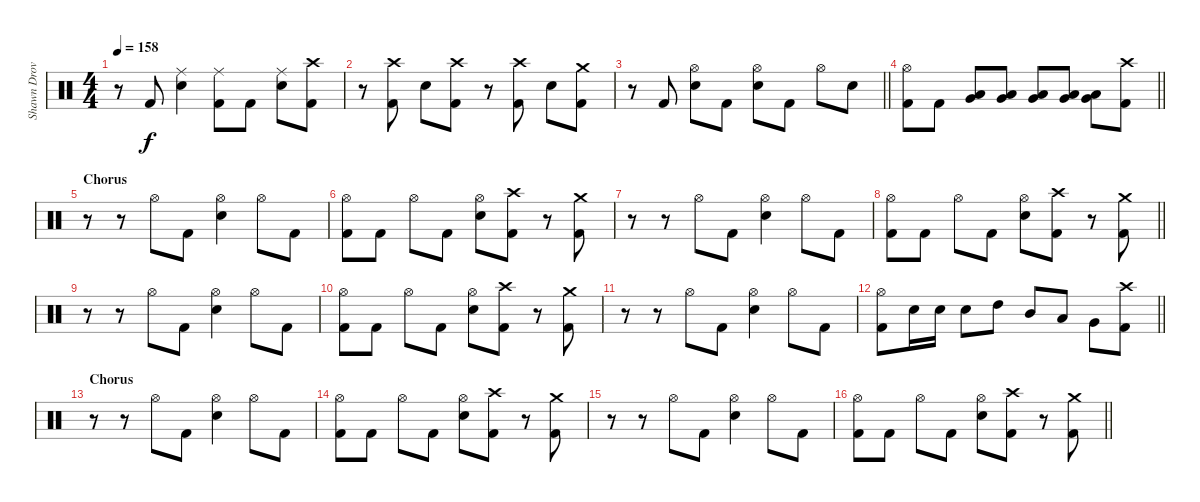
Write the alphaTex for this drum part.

\track ("Shawn Drover" "Shawn Drov") {instrument percussion}
\staff
\articulation defaults
\ts (4 4)
\tempo 158
\clef neutral
\ks c
r.8{dy f} "Kick (hit) 2".8 ("Ride (middle)" "Snare (hit) 2").4 ("Ride (middle)" "Kick (hit) 2").8 "Kick (hit) 2".8 ("Ride (middle)" "Snare (hit) 2").8 ("Crash high (hit)" "Kick (hit) 2").8 |
r.8 ("Crash high (hit)" "Kick (hit) 2").8 "Snare (hit) 2".8 ("Crash high (hit)" "Kick (hit) 2").8 r.8 ("Crash high (hit)" "Kick (hit) 2").8 "Snare (hit) 2".8 ("Crash medium (hit)" "Kick (hit) 2").8 |
\barLineRight lightlight
r.8 "Kick (hit) 2".8 ("Hi-Hat (open)" "Snare (hit) 2").8 "Kick (hit) 2".8 ("Hi-Hat (open)" "Snare (hit) 2").8 "Kick (hit) 2".8 "Hi-Hat (open)".8 "Snare (hit) 2".8 |
\barLineRight lightlight
("Hi-Hat (open)" "Kick (hit) 2").8 "Kick (hit) 2".8 ("Very Low Tom (hit)" "Low Floor Tom (hit)").8 ("Very Low Tom (hit)" "Low Floor Tom (hit)").8 ("Very Low Tom (hit)" "Low Floor Tom (hit)").8 ("Very Low Tom (hit)" "Low Floor Tom (hit)").8 ("Very Low Tom (hit)" "Low Floor Tom (hit)").8 ("Crash high (hit)" "Kick (hit) 2").8 |
\section ("" "Chorus")
r.8 r.8 "Hi-Hat (open)".8 "Kick (hit) 2".8 ("Hi-Hat (open)" "Snare (hit) 2").4 "Hi-Hat (open)".8 "Kick (hit) 2".8 |
("Hi-Hat (open)" "Kick (hit) 2").8 "Kick (hit) 2".8 "Hi-Hat (open)".8 "Kick (hit) 2".8 ("Hi-Hat (open)" "Snare (hit) 2").8 ("Crash high (hit)" "Kick (hit) 2").8 r.8 ("Crash medium (hit)" "Kick (hit) 2").8 |
r.8 r.8 "Hi-Hat (open)".8 "Kick (hit) 2".8 ("Hi-Hat (open)" "Snare (hit) 2").4 "Hi-Hat (open)".8 "Kick (hit) 2".8 |
\barLineRight lightlight
("Hi-Hat (open)" "Kick (hit) 2").8 "Kick (hit) 2".8 "Hi-Hat (open)".8 "Kick (hit) 2".8 ("Hi-Hat (open)" "Snare (hit) 2").8 ("Crash high (hit)" "Kick (hit) 2").8 r.8 ("Crash medium (hit)" "Kick (hit) 2").8 |
r.8 r.8 "Hi-Hat (open)".8 "Kick (hit) 2".8 ("Hi-Hat (open)" "Snare (hit) 2").4 "Hi-Hat (open)".8 "Kick (hit) 2".8 |
("Hi-Hat (open)" "Kick (hit) 2").8 "Kick (hit) 2".8 "Hi-Hat (open)".8 "Kick (hit) 2".8 ("Hi-Hat (open)" "Snare (hit) 2").8 ("Crash high (hit)" "Kick (hit) 2").8 r.8 ("Crash medium (hit)" "Kick (hit) 2").8 |
r.8 r.8 "Hi-Hat (open)".8 "Kick (hit) 2".8 ("Hi-Hat (open)" "Snare (hit) 2").4 "Hi-Hat (open)".8 "Kick (hit) 2".8 |
\barLineRight lightlight
("Hi-Hat (open)" "Kick (hit) 2").8 "Snare (hit) 2".16 "Snare (hit) 2".16 "Snare (hit) 2".8 "High Tom (hit)".8 "Mid Tom (hit)".8 "Low Tom (hit)".8 "Very Low Tom (hit)".8 ("Crash high (hit)" "Kick (hit) 2").8 |
\section ("" "Chorus")
r.8 r.8 "Hi-Hat (open)".8 "Kick (hit) 2".8 ("Hi-Hat (open)" "Snare (hit) 2").4 "Hi-Hat (open)".8 "Kick (hit) 2".8 |
("Hi-Hat (open)" "Kick (hit) 2").8 "Kick (hit) 2".8 "Hi-Hat (open)".8 "Kick (hit) 2".8 ("Hi-Hat (open)" "Snare (hit) 2").8 ("Crash high (hit)" "Kick (hit) 2").8 r.8 ("Crash medium (hit)" "Kick (hit) 2").8 |
r.8 r.8 "Hi-Hat (open)".8 "Kick (hit) 2".8 ("Hi-Hat (open)" "Snare (hit) 2").4 "Hi-Hat (open)".8 "Kick (hit) 2".8 |
\barLineRight lightlight
("Hi-Hat (open)" "Kick (hit) 2").8 "Kick (hit) 2".8 "Hi-Hat (open)".8 "Kick (hit) 2".8 ("Hi-Hat (open)" "Snare (hit) 2").8 ("Crash high (hit)" "Kick (hit) 2").8 r.8 ("Crash medium (hit)" "Kick (hit) 2").8
